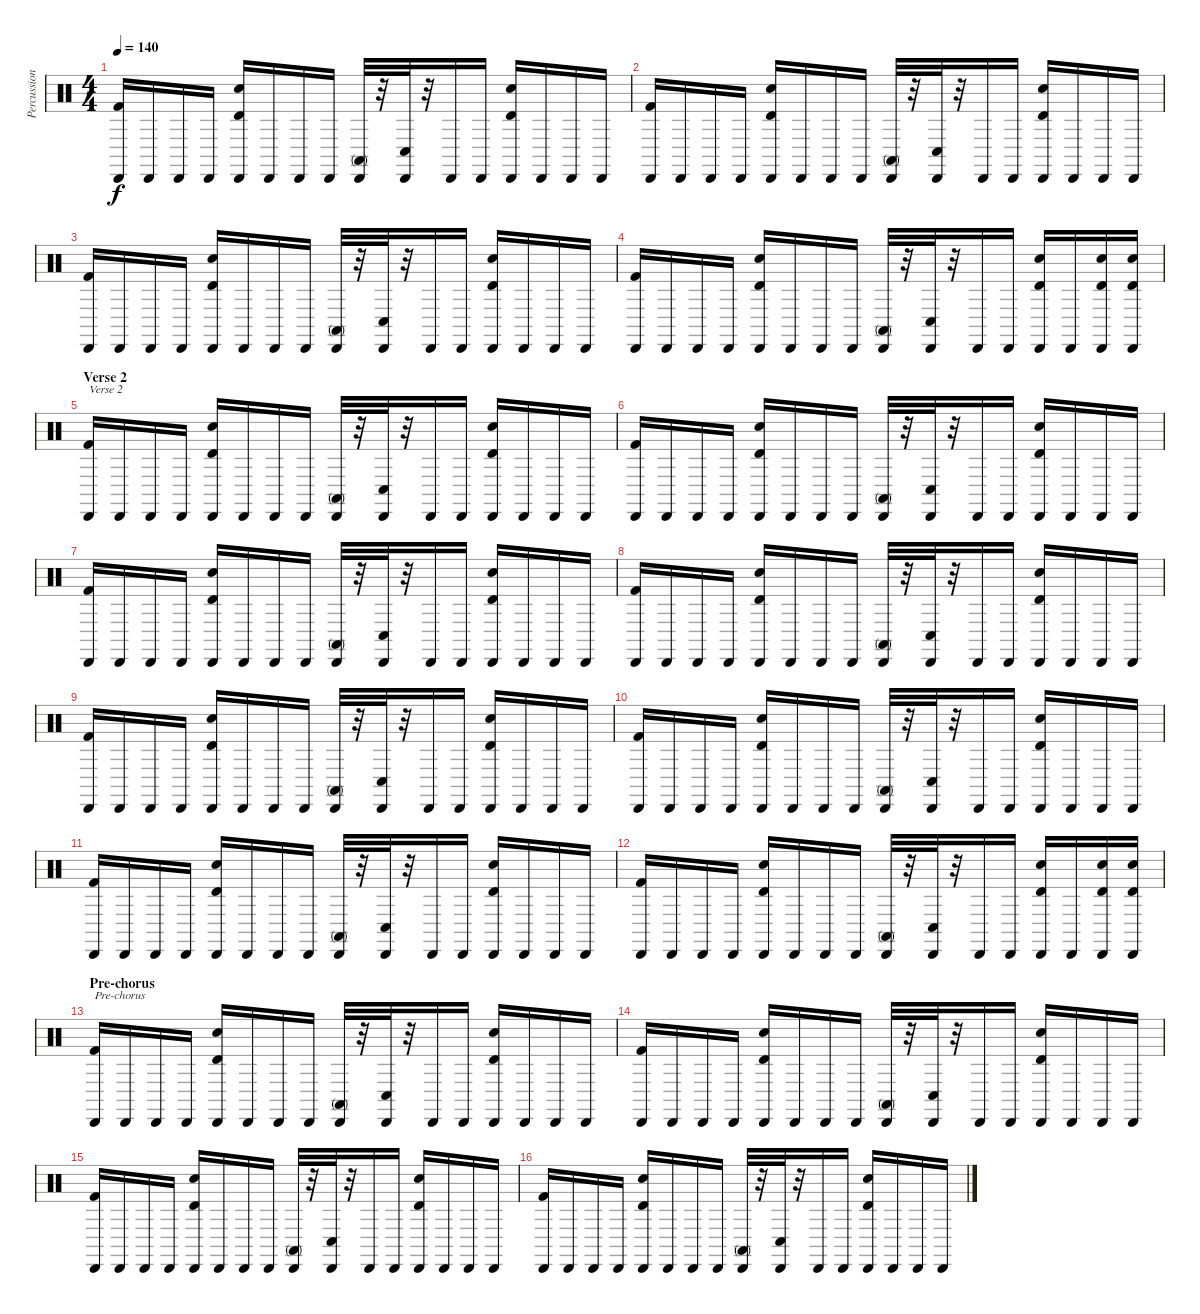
\track ("Percussions" "Percussion") {instrument percussion}
\staff {score}
\articulation defaults
\ts (4 4)
\tempo 140
\clef neutral
\ks c
("Kick (hit) 2" "Cabasa (hit)").16{dy f} "Cabasa (hit)".16 "Cabasa (hit)".16 "Cabasa (hit)".16 ("Timbale high (hit)" "Electric Snare (hit)" "Cabasa (hit)").16 "Cabasa (hit)".16 "Cabasa (hit)".16 "Cabasa (hit)".16 ("Conga high (mute)" "Cabasa (hit)").32 r.32 ("Conga low (hit)" "Cabasa (hit)").32 r.32 "Cabasa (hit)".16 "Cabasa (hit)".16 ("Electric Snare (hit)" "Timbale high (hit)" "Cabasa (hit)").16 "Cabasa (hit)".16 "Cabasa (hit)".16 "Cabasa (hit)".16 |
("Kick (hit) 2" "Cabasa (hit)").16 "Cabasa (hit)".16 "Cabasa (hit)".16 "Cabasa (hit)".16 ("Timbale high (hit)" "Electric Snare (hit)" "Cabasa (hit)").16 "Cabasa (hit)".16 "Cabasa (hit)".16 "Cabasa (hit)".16 ("Conga high (mute)" "Cabasa (hit)").32 r.32 ("Conga low (hit)" "Cabasa (hit)").32 r.32 "Cabasa (hit)".16 "Cabasa (hit)".16 ("Electric Snare (hit)" "Timbale high (hit)" "Cabasa (hit)").16 "Cabasa (hit)".16 "Cabasa (hit)".16 "Cabasa (hit)".16 |
("Kick (hit) 2" "Cabasa (hit)").16 "Cabasa (hit)".16 "Cabasa (hit)".16 "Cabasa (hit)".16 ("Timbale high (hit)" "Electric Snare (hit)" "Cabasa (hit)").16 "Cabasa (hit)".16 "Cabasa (hit)".16 "Cabasa (hit)".16 ("Conga high (mute)" "Cabasa (hit)").32 r.32 ("Conga low (hit)" "Cabasa (hit)").32 r.32 "Cabasa (hit)".16 "Cabasa (hit)".16 ("Electric Snare (hit)" "Timbale high (hit)" "Cabasa (hit)").16 "Cabasa (hit)".16 "Cabasa (hit)".16 "Cabasa (hit)".16 |
("Kick (hit) 2" "Cabasa (hit)").16 "Cabasa (hit)".16 "Cabasa (hit)".16 "Cabasa (hit)".16 ("Timbale high (hit)" "Electric Snare (hit)" "Cabasa (hit)").16 "Cabasa (hit)".16 "Cabasa (hit)".16 "Cabasa (hit)".16 ("Conga high (mute)" "Cabasa (hit)").32 r.32 ("Conga low (hit)" "Cabasa (hit)").32 r.32 "Cabasa (hit)".16 "Cabasa (hit)".16 ("Electric Snare (hit)" "Timbale high (hit)" "Cabasa (hit)").16 "Cabasa (hit)".16 ("Electric Snare (hit)" "Timbale high (hit)" "Cabasa (hit)").16 ("Electric Snare (hit)" "Timbale high (hit)" "Cabasa (hit)").16 |
\section ("" "Verse 2")
("Kick (hit) 2" "Cabasa (hit)").16{txt "Verse 2"} "Cabasa (hit)".16 "Cabasa (hit)".16 "Cabasa (hit)".16 ("Timbale high (hit)" "Electric Snare (hit)" "Cabasa (hit)").16 "Cabasa (hit)".16 "Cabasa (hit)".16 "Cabasa (hit)".16 ("Conga high (mute)" "Cabasa (hit)").32 r.32 ("Conga low (hit)" "Cabasa (hit)").32 r.32 "Cabasa (hit)".16 "Cabasa (hit)".16 ("Electric Snare (hit)" "Timbale high (hit)" "Cabasa (hit)").16 "Cabasa (hit)".16 "Cabasa (hit)".16 "Cabasa (hit)".16 |
("Kick (hit) 2" "Cabasa (hit)").16 "Cabasa (hit)".16 "Cabasa (hit)".16 "Cabasa (hit)".16 ("Timbale high (hit)" "Electric Snare (hit)" "Cabasa (hit)").16 "Cabasa (hit)".16 "Cabasa (hit)".16 "Cabasa (hit)".16 ("Conga high (mute)" "Cabasa (hit)").32 r.32 ("Conga low (hit)" "Cabasa (hit)").32 r.32 "Cabasa (hit)".16 "Cabasa (hit)".16 ("Electric Snare (hit)" "Timbale high (hit)" "Cabasa (hit)").16 "Cabasa (hit)".16 "Cabasa (hit)".16 "Cabasa (hit)".16 |
("Kick (hit) 2" "Cabasa (hit)").16 "Cabasa (hit)".16 "Cabasa (hit)".16 "Cabasa (hit)".16 ("Timbale high (hit)" "Electric Snare (hit)" "Cabasa (hit)").16 "Cabasa (hit)".16 "Cabasa (hit)".16 "Cabasa (hit)".16 ("Conga high (mute)" "Cabasa (hit)").32 r.32 ("Conga low (hit)" "Cabasa (hit)").32 r.32 "Cabasa (hit)".16 "Cabasa (hit)".16 ("Electric Snare (hit)" "Timbale high (hit)" "Cabasa (hit)").16 "Cabasa (hit)".16 "Cabasa (hit)".16 "Cabasa (hit)".16 |
("Kick (hit) 2" "Cabasa (hit)").16 "Cabasa (hit)".16 "Cabasa (hit)".16 "Cabasa (hit)".16 ("Timbale high (hit)" "Electric Snare (hit)" "Cabasa (hit)").16 "Cabasa (hit)".16 "Cabasa (hit)".16 "Cabasa (hit)".16 ("Conga high (mute)" "Cabasa (hit)").32 r.32 ("Conga low (hit)" "Cabasa (hit)").32 r.32 "Cabasa (hit)".16 "Cabasa (hit)".16 ("Electric Snare (hit)" "Timbale high (hit)" "Cabasa (hit)").16 "Cabasa (hit)".16 "Cabasa (hit)".16 "Cabasa (hit)".16 |
("Kick (hit) 2" "Cabasa (hit)").16 "Cabasa (hit)".16 "Cabasa (hit)".16 "Cabasa (hit)".16 ("Timbale high (hit)" "Electric Snare (hit)" "Cabasa (hit)").16 "Cabasa (hit)".16 "Cabasa (hit)".16 "Cabasa (hit)".16 ("Conga high (mute)" "Cabasa (hit)").32 r.32 ("Conga low (hit)" "Cabasa (hit)").32 r.32 "Cabasa (hit)".16 "Cabasa (hit)".16 ("Electric Snare (hit)" "Timbale high (hit)" "Cabasa (hit)").16 "Cabasa (hit)".16 "Cabasa (hit)".16 "Cabasa (hit)".16 |
("Kick (hit) 2" "Cabasa (hit)").16 "Cabasa (hit)".16 "Cabasa (hit)".16 "Cabasa (hit)".16 ("Timbale high (hit)" "Electric Snare (hit)" "Cabasa (hit)").16 "Cabasa (hit)".16 "Cabasa (hit)".16 "Cabasa (hit)".16 ("Conga high (mute)" "Cabasa (hit)").32 r.32 ("Conga low (hit)" "Cabasa (hit)").32 r.32 "Cabasa (hit)".16 "Cabasa (hit)".16 ("Electric Snare (hit)" "Timbale high (hit)" "Cabasa (hit)").16 "Cabasa (hit)".16 "Cabasa (hit)".16 "Cabasa (hit)".16 |
("Kick (hit) 2" "Cabasa (hit)").16 "Cabasa (hit)".16 "Cabasa (hit)".16 "Cabasa (hit)".16 ("Timbale high (hit)" "Electric Snare (hit)" "Cabasa (hit)").16 "Cabasa (hit)".16 "Cabasa (hit)".16 "Cabasa (hit)".16 ("Conga high (mute)" "Cabasa (hit)").32 r.32 ("Conga low (hit)" "Cabasa (hit)").32 r.32 "Cabasa (hit)".16 "Cabasa (hit)".16 ("Electric Snare (hit)" "Timbale high (hit)" "Cabasa (hit)").16 "Cabasa (hit)".16 "Cabasa (hit)".16 "Cabasa (hit)".16 |
("Kick (hit) 2" "Cabasa (hit)").16 "Cabasa (hit)".16 "Cabasa (hit)".16 "Cabasa (hit)".16 ("Timbale high (hit)" "Electric Snare (hit)" "Cabasa (hit)").16 "Cabasa (hit)".16 "Cabasa (hit)".16 "Cabasa (hit)".16 ("Conga high (mute)" "Cabasa (hit)").32 r.32 ("Conga low (hit)" "Cabasa (hit)").32 r.32 "Cabasa (hit)".16 "Cabasa (hit)".16 ("Electric Snare (hit)" "Timbale high (hit)" "Cabasa (hit)").16 "Cabasa (hit)".16 ("Timbale high (hit)" "Electric Snare (hit)" "Cabasa (hit)").16 ("Timbale high (hit)" "Electric Snare (hit)" "Cabasa (hit)").16 |
\section ("" "Pre-chorus")
("Kick (hit) 2" "Cabasa (hit)").16{txt "Pre-chorus"} "Cabasa (hit)".16 "Cabasa (hit)".16 "Cabasa (hit)".16 ("Timbale high (hit)" "Electric Snare (hit)" "Cabasa (hit)").16 "Cabasa (hit)".16 "Cabasa (hit)".16 "Cabasa (hit)".16 ("Conga high (mute)" "Cabasa (hit)").32 r.32 ("Conga low (hit)" "Cabasa (hit)").32 r.32 "Cabasa (hit)".16 "Cabasa (hit)".16 ("Electric Snare (hit)" "Timbale high (hit)" "Cabasa (hit)").16 "Cabasa (hit)".16 "Cabasa (hit)".16 "Cabasa (hit)".16 |
("Kick (hit) 2" "Cabasa (hit)").16 "Cabasa (hit)".16 "Cabasa (hit)".16 "Cabasa (hit)".16 ("Timbale high (hit)" "Electric Snare (hit)" "Cabasa (hit)").16 "Cabasa (hit)".16 "Cabasa (hit)".16 "Cabasa (hit)".16 ("Conga high (mute)" "Cabasa (hit)").32 r.32 ("Conga low (hit)" "Cabasa (hit)").32 r.32 "Cabasa (hit)".16 "Cabasa (hit)".16 ("Electric Snare (hit)" "Timbale high (hit)" "Cabasa (hit)").16 "Cabasa (hit)".16 "Cabasa (hit)".16 "Cabasa (hit)".16 |
("Kick (hit) 2" "Cabasa (hit)").16 "Cabasa (hit)".16 "Cabasa (hit)".16 "Cabasa (hit)".16 ("Timbale high (hit)" "Electric Snare (hit)" "Cabasa (hit)").16 "Cabasa (hit)".16 "Cabasa (hit)".16 "Cabasa (hit)".16 ("Conga high (mute)" "Cabasa (hit)").32 r.32 ("Conga low (hit)" "Cabasa (hit)").32 r.32 "Cabasa (hit)".16 "Cabasa (hit)".16 ("Electric Snare (hit)" "Timbale high (hit)" "Cabasa (hit)").16 "Cabasa (hit)".16 "Cabasa (hit)".16 "Cabasa (hit)".16 |
("Kick (hit) 2" "Cabasa (hit)").16 "Cabasa (hit)".16 "Cabasa (hit)".16 "Cabasa (hit)".16 ("Timbale high (hit)" "Electric Snare (hit)" "Cabasa (hit)").16 "Cabasa (hit)".16 "Cabasa (hit)".16 "Cabasa (hit)".16 ("Conga high (mute)" "Cabasa (hit)").32 r.32 ("Conga low (hit)" "Cabasa (hit)").32 r.32 "Cabasa (hit)".16 "Cabasa (hit)".16 ("Electric Snare (hit)" "Timbale high (hit)" "Cabasa (hit)").16 "Cabasa (hit)".16 "Cabasa (hit)".16 "Cabasa (hit)".16
